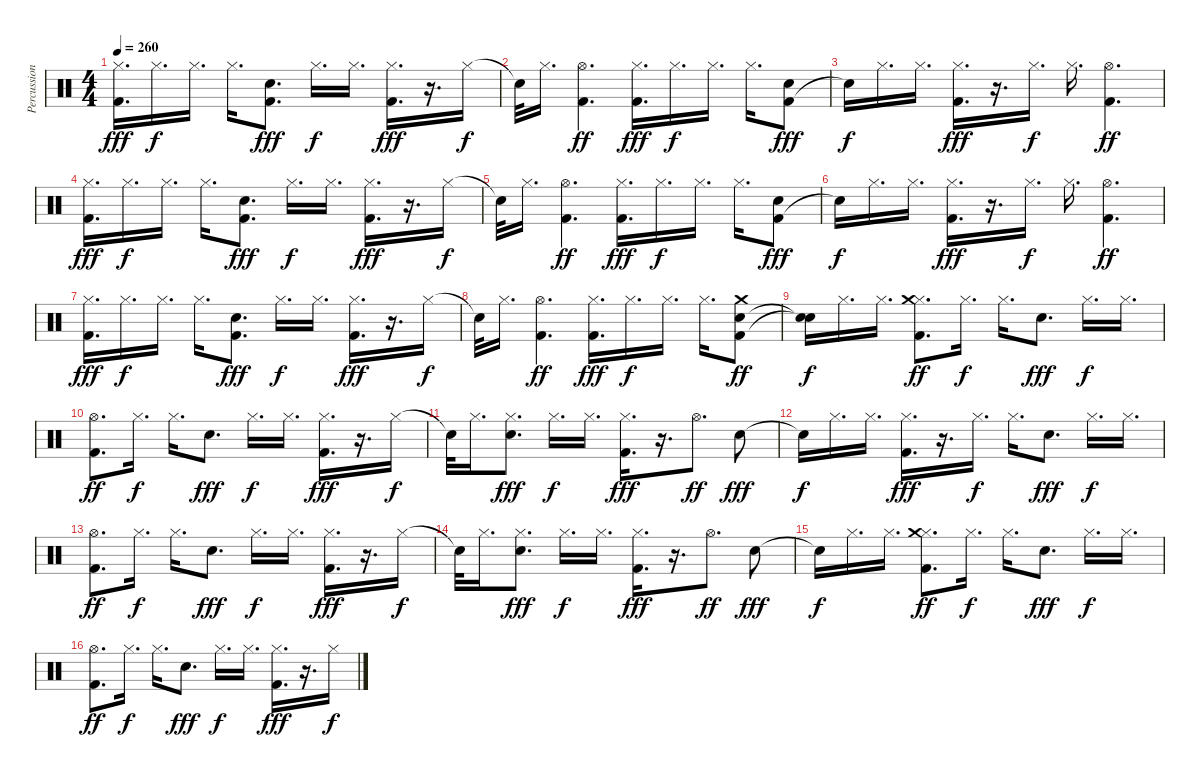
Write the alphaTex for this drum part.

\track ("Percussion" "Percussion") {instrument percussion}
\staff {score}
\articulation defaults
\ts (4 4)
\tempo 260
\clef neutral
\ks c
("Kick (hit) 2" "Hi-Hat (closed)").16{d dy fff} "Hi-Hat (closed)".16{d dy f} "Hi-Hat (closed)".16{d} "Hi-Hat (closed)".16{d} ("Kick (hit) 2" "Electric Snare (hit)").8{d dy fff} "Hi-Hat (closed)".16{d dy f} "Hi-Hat (closed)".16{d} ("Kick (hit) 2" "Hi-Hat (closed)").16{d dy fff} r.16{d} "Hi-Hat (closed)".16{dy f} |
"Snare (hit)"{t}.32 "Hi-Hat (closed)".16{d} ("Kick (hit) 2" "Hi-Hat (open)").4{d dy ff} ("Kick (hit) 2" "Hi-Hat (closed)").16{d dy fff} "Hi-Hat (closed)".16{d dy f} "Hi-Hat (closed)".16{d} "Hi-Hat (closed)".16{d} ("Kick (hit) 2" "Electric Snare (hit)").8{dy fff} |
"Snare (hit)"{t}.16{dy f} "Hi-Hat (closed)".16{d} "Hi-Hat (closed)".16{d} ("Kick (hit) 2" "Hi-Hat (closed)").16{d dy fff} r.16{d} "Hi-Hat (closed)".16{d dy f} "Hi-Hat (closed)".16{d} ("Kick (hit) 2" "Hi-Hat (open)").4{d dy ff} |
("Kick (hit) 2" "Hi-Hat (closed)").16{d dy fff} "Hi-Hat (closed)".16{d dy f} "Hi-Hat (closed)".16{d} "Hi-Hat (closed)".16{d} ("Kick (hit) 2" "Electric Snare (hit)").8{d dy fff} "Hi-Hat (closed)".16{d dy f} "Hi-Hat (closed)".16{d} ("Kick (hit) 2" "Hi-Hat (closed)").16{d dy fff} r.16{d} "Hi-Hat (closed)".16{dy f} |
"Snare (hit)"{t}.32 "Hi-Hat (closed)".16{d} ("Kick (hit) 2" "Hi-Hat (open)").4{d dy ff} ("Kick (hit) 2" "Hi-Hat (closed)").16{d dy fff} "Hi-Hat (closed)".16{d dy f} "Hi-Hat (closed)".16{d} "Hi-Hat (closed)".16{d} ("Kick (hit) 2" "Electric Snare (hit)").8{dy fff} |
"Snare (hit)"{t}.16{dy f} "Hi-Hat (closed)".16{d} "Hi-Hat (closed)".16{d} ("Kick (hit) 2" "Hi-Hat (closed)").16{d dy fff} r.16{d} "Hi-Hat (closed)".16{d dy f} "Hi-Hat (closed)".16{d} ("Kick (hit) 2" "Hi-Hat (open)").4{d dy ff} |
("Kick (hit) 2" "Hi-Hat (closed)").16{d dy fff} "Hi-Hat (closed)".16{d dy f} "Hi-Hat (closed)".16{d} "Hi-Hat (closed)".16{d} ("Kick (hit) 2" "Electric Snare (hit)").8{d dy fff} "Hi-Hat (closed)".16{d dy f} "Hi-Hat (closed)".16{d} ("Kick (hit) 2" "Hi-Hat (closed)").16{d dy fff} r.16{d} "Hi-Hat (closed)".16{dy f} |
"Snare (hit)"{t}.32 "Hi-Hat (closed)".16{d} ("Kick (hit) 2" "Hi-Hat (open)").4{d dy ff} ("Kick (hit) 2" "Hi-Hat (closed)").16{d dy fff} "Hi-Hat (closed)".16{d dy f} "Hi-Hat (closed)".16{d} "Hi-Hat (closed)".16{d} ("Kick (hit) 2" "Electric Snare (hit)" "Crash medium (hit)").8{dy ff} |
("Snare (hit)"{t} "Snare (hit)"{t}).16{dy f} "Hi-Hat (closed)".16{d} "Hi-Hat (closed)".16{d} ("Kick (hit) 2" "Hi-Hat (closed)" "Crash medium (hit)").8{d dy ff} "Hi-Hat (closed)".16{d dy f} "Hi-Hat (closed)".16{d} "Electric Snare (hit)".8{d dy fff} "Hi-Hat (closed)".16{d dy f} "Hi-Hat (closed)".16{d} |
("Kick (hit) 2" "Hi-Hat (open)").8{d dy ff} "Hi-Hat (closed)".16{d dy f} "Hi-Hat (closed)".16{d} "Electric Snare (hit)".8{d dy fff} "Hi-Hat (closed)".16{d dy f} "Hi-Hat (closed)".16{d} ("Kick (hit) 2" "Hi-Hat (closed)").16{d dy fff} r.16{d} "Hi-Hat (closed)".16{dy f} |
"Snare (hit)"{t}.32 "Hi-Hat (closed)".16{d} ("Hi-Hat (closed)" "Electric Snare (hit)").8{d dy fff} "Hi-Hat (closed)".16{d dy f} "Hi-Hat (closed)".16{d} ("Kick (hit) 2" "Hi-Hat (closed)").16{d dy fff} r.16{d} "Hi-Hat (open)".8{d dy ff} "Electric Snare (hit)".8{dy fff} |
"Snare (hit)"{t}.16{dy f} "Hi-Hat (closed)".16{d} "Hi-Hat (closed)".16{d} ("Kick (hit) 2" "Hi-Hat (closed)").16{d dy fff} r.16{d} "Hi-Hat (closed)".16{d dy f} "Hi-Hat (closed)".16{d} "Electric Snare (hit)".8{d dy fff} "Hi-Hat (closed)".16{d dy f} "Hi-Hat (closed)".16{d} |
("Kick (hit) 2" "Hi-Hat (open)").8{d dy ff} "Hi-Hat (closed)".16{d dy f} "Hi-Hat (closed)".16{d} "Electric Snare (hit)".8{d dy fff} "Hi-Hat (closed)".16{d dy f} "Hi-Hat (closed)".16{d} ("Kick (hit) 2" "Hi-Hat (closed)").16{d dy fff} r.16{d} "Hi-Hat (closed)".16{dy f} |
"Snare (hit)"{t}.32 "Hi-Hat (closed)".16{d} ("Hi-Hat (closed)" "Electric Snare (hit)").8{d dy fff} "Hi-Hat (closed)".16{d dy f} "Hi-Hat (closed)".16{d} ("Kick (hit) 2" "Hi-Hat (closed)").16{d dy fff} r.16{d} "Hi-Hat (open)".8{d dy ff} "Electric Snare (hit)".8{dy fff} |
"Snare (hit)"{t}.16{dy f} "Hi-Hat (closed)".16{d} "Hi-Hat (closed)".16{d} ("Kick (hit) 2" "Hi-Hat (closed)" "Crash medium (hit)").8{d dy ff} "Hi-Hat (closed)".16{d dy f} "Hi-Hat (closed)".16{d} "Electric Snare (hit)".8{d dy fff} "Hi-Hat (closed)".16{d dy f} "Hi-Hat (closed)".16{d} |
("Kick (hit) 2" "Hi-Hat (open)").8{d dy ff} "Hi-Hat (closed)".16{d dy f} "Hi-Hat (closed)".16{d} "Electric Snare (hit)".8{d dy fff} "Hi-Hat (closed)".16{d dy f} "Hi-Hat (closed)".16{d} ("Kick (hit) 2" "Hi-Hat (closed)").16{d dy fff} r.16{d} "Hi-Hat (closed)".16{dy f}
